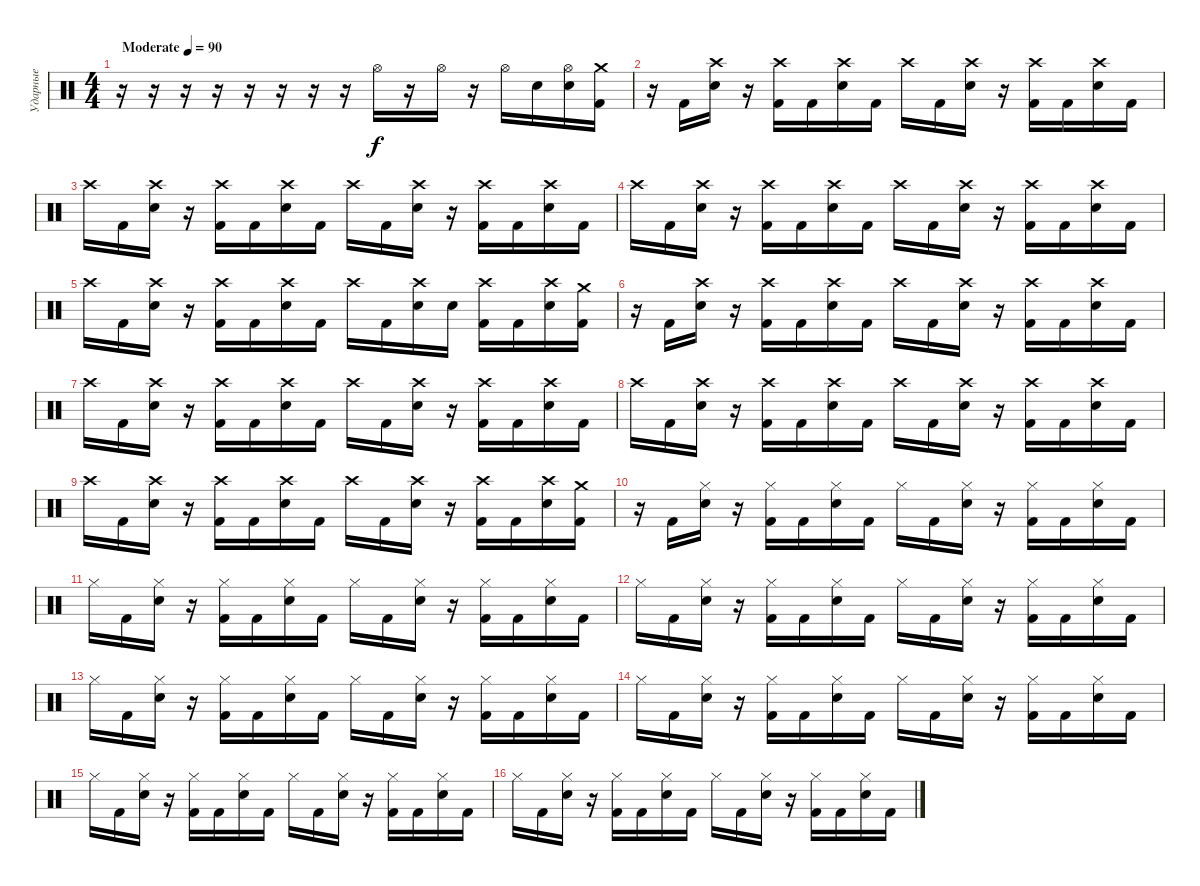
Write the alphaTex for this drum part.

\track ("Ударные" "Ударные") {instrument percussion}
\staff {score}
\articulation defaults
\ts (4 4)
\tempo (90 "Moderate")
\clef neutral
\ks c
r.16{dy f} r.16 r.16 r.16 r.16 r.16 r.16 r.16 "Hi-Hat (open)".16 r.16 "Hi-Hat (open)".16 r.16 "Hi-Hat (open)".16 "Electric Snare (hit)".16 ("Hi-Hat (open)" "Electric Snare (hit)").16 ("Crash medium (hit)" "Kick (hit) 2").16 |
r.16 "Kick (hit) 2".16 ("Crash high (hit)" "Electric Snare (hit)").16 r.16 ("Crash high (hit)" "Kick (hit) 2").16 "Kick (hit) 2".16 ("Crash high (hit)" "Electric Snare (hit)").16 "Kick (hit) 2".16 "Crash high (hit)".16 "Kick (hit) 2".16 ("Crash high (hit)" "Electric Snare (hit)").16 r.16 ("Crash high (hit)" "Kick (hit) 2").16 "Kick (hit) 2".16 ("Crash high (hit)" "Electric Snare (hit)").16 "Kick (hit) 2".16 |
"Crash high (hit)".16 "Kick (hit) 2".16 ("Crash high (hit)" "Electric Snare (hit)").16 r.16 ("Crash high (hit)" "Kick (hit) 2").16 "Kick (hit) 2".16 ("Crash high (hit)" "Electric Snare (hit)").16 "Kick (hit) 2".16 "Crash high (hit)".16 "Kick (hit) 2".16 ("Crash high (hit)" "Electric Snare (hit)").16 r.16 ("Crash high (hit)" "Kick (hit) 2").16 "Kick (hit) 2".16 ("Crash high (hit)" "Electric Snare (hit)").16 "Kick (hit) 2".16 |
"Crash high (hit)".16 "Kick (hit) 2".16 ("Crash high (hit)" "Electric Snare (hit)").16 r.16 ("Crash high (hit)" "Kick (hit) 2").16 "Kick (hit) 2".16 ("Crash high (hit)" "Electric Snare (hit)").16 "Kick (hit) 2".16 "Crash high (hit)".16 "Kick (hit) 2".16 ("Crash high (hit)" "Electric Snare (hit)").16 r.16 ("Crash high (hit)" "Kick (hit) 2").16 "Kick (hit) 2".16 ("Crash high (hit)" "Electric Snare (hit)").16 "Kick (hit) 2".16 |
"Crash high (hit)".16 "Kick (hit) 2".16 ("Crash high (hit)" "Electric Snare (hit)").16 r.16 ("Crash high (hit)" "Kick (hit) 2").16 "Kick (hit) 2".16 ("Crash high (hit)" "Electric Snare (hit)").16 "Kick (hit) 2".16 "Crash high (hit)".16 "Kick (hit) 2".16 ("Crash high (hit)" "Electric Snare (hit)").16 "Electric Snare (hit)".16 ("Crash high (hit)" "Kick (hit) 2").16 "Kick (hit) 2".16 ("Crash high (hit)" "Electric Snare (hit)").16 ("Crash medium (hit)" "Kick (hit) 2").16 |
r.16 "Kick (hit) 2".16 ("Crash high (hit)" "Electric Snare (hit)").16 r.16 ("Crash high (hit)" "Kick (hit) 2").16 "Kick (hit) 2".16 ("Crash high (hit)" "Electric Snare (hit)").16 "Kick (hit) 2".16 "Crash high (hit)".16 "Kick (hit) 2".16 ("Crash high (hit)" "Electric Snare (hit)").16 r.16 ("Crash high (hit)" "Kick (hit) 2").16 "Kick (hit) 2".16 ("Crash high (hit)" "Electric Snare (hit)").16 "Kick (hit) 2".16 |
"Crash high (hit)".16 "Kick (hit) 2".16 ("Crash high (hit)" "Electric Snare (hit)").16 r.16 ("Crash high (hit)" "Kick (hit) 2").16 "Kick (hit) 2".16 ("Crash high (hit)" "Electric Snare (hit)").16 "Kick (hit) 2".16 "Crash high (hit)".16 "Kick (hit) 2".16 ("Crash high (hit)" "Electric Snare (hit)").16 r.16 ("Crash high (hit)" "Kick (hit) 2").16 "Kick (hit) 2".16 ("Crash high (hit)" "Electric Snare (hit)").16 "Kick (hit) 2".16 |
"Crash high (hit)".16 "Kick (hit) 2".16 ("Crash high (hit)" "Electric Snare (hit)").16 r.16 ("Crash high (hit)" "Kick (hit) 2").16 "Kick (hit) 2".16 ("Crash high (hit)" "Electric Snare (hit)").16 "Kick (hit) 2".16 "Crash high (hit)".16 "Kick (hit) 2".16 ("Crash high (hit)" "Electric Snare (hit)").16 r.16 ("Crash high (hit)" "Kick (hit) 2").16 "Kick (hit) 2".16 ("Crash high (hit)" "Electric Snare (hit)").16 "Kick (hit) 2".16 |
"Crash high (hit)".16 "Kick (hit) 2".16 ("Crash high (hit)" "Electric Snare (hit)").16 r.16 ("Crash high (hit)" "Kick (hit) 2").16 "Kick (hit) 2".16 ("Crash high (hit)" "Electric Snare (hit)").16 "Kick (hit) 2".16 "Crash high (hit)".16 "Kick (hit) 2".16 ("Crash high (hit)" "Electric Snare (hit)").16 r.16 ("Crash high (hit)" "Kick (hit) 2").16 "Kick (hit) 2".16 ("Crash high (hit)" "Electric Snare (hit)").16 ("Crash medium (hit)" "Kick (hit) 2").16 |
r.16 "Kick (hit) 2".16 ("Hi-Hat (closed)" "Electric Snare (hit)").16 r.16 ("Hi-Hat (closed)" "Kick (hit) 2").16 "Kick (hit) 2".16 ("Hi-Hat (closed)" "Electric Snare (hit)").16 "Kick (hit) 2".16 "Hi-Hat (closed)".16 "Kick (hit) 2".16 ("Hi-Hat (closed)" "Electric Snare (hit)").16 r.16 ("Hi-Hat (closed)" "Kick (hit) 2").16 "Kick (hit) 2".16 ("Hi-Hat (closed)" "Electric Snare (hit)").16 "Kick (hit) 2".16 |
"Hi-Hat (closed)".16 "Kick (hit) 2".16 ("Hi-Hat (closed)" "Electric Snare (hit)").16 r.16 ("Hi-Hat (closed)" "Kick (hit) 2").16 "Kick (hit) 2".16 ("Hi-Hat (closed)" "Electric Snare (hit)").16 "Kick (hit) 2".16 "Hi-Hat (closed)".16 "Kick (hit) 2".16 ("Hi-Hat (closed)" "Electric Snare (hit)").16 r.16 ("Hi-Hat (closed)" "Kick (hit) 2").16 "Kick (hit) 2".16 ("Hi-Hat (closed)" "Electric Snare (hit)").16 "Kick (hit) 2".16 |
"Hi-Hat (closed)".16 "Kick (hit) 2".16 ("Hi-Hat (closed)" "Electric Snare (hit)").16 r.16 ("Hi-Hat (closed)" "Kick (hit) 2").16 "Kick (hit) 2".16 ("Hi-Hat (closed)" "Electric Snare (hit)").16 "Kick (hit) 2".16 "Hi-Hat (closed)".16 "Kick (hit) 2".16 ("Hi-Hat (closed)" "Electric Snare (hit)").16 r.16 ("Hi-Hat (closed)" "Kick (hit) 2").16 "Kick (hit) 2".16 ("Hi-Hat (closed)" "Electric Snare (hit)").16 "Kick (hit) 2".16 |
"Hi-Hat (closed)".16 "Kick (hit) 2".16 ("Hi-Hat (closed)" "Electric Snare (hit)").16 r.16 ("Hi-Hat (closed)" "Kick (hit) 2").16 "Kick (hit) 2".16 ("Hi-Hat (closed)" "Electric Snare (hit)").16 "Kick (hit) 2".16 "Hi-Hat (closed)".16 "Kick (hit) 2".16 ("Hi-Hat (closed)" "Electric Snare (hit)").16 r.16 ("Hi-Hat (closed)" "Kick (hit) 2").16 "Kick (hit) 2".16 ("Hi-Hat (closed)" "Electric Snare (hit)").16 "Kick (hit) 2".16 |
"Hi-Hat (closed)".16 "Kick (hit) 2".16 ("Hi-Hat (closed)" "Electric Snare (hit)").16 r.16 ("Hi-Hat (closed)" "Kick (hit) 2").16 "Kick (hit) 2".16 ("Hi-Hat (closed)" "Electric Snare (hit)").16 "Kick (hit) 2".16 "Hi-Hat (closed)".16 "Kick (hit) 2".16 ("Hi-Hat (closed)" "Electric Snare (hit)").16 r.16 ("Hi-Hat (closed)" "Kick (hit) 2").16 "Kick (hit) 2".16 ("Hi-Hat (closed)" "Electric Snare (hit)").16 "Kick (hit) 2".16 |
"Hi-Hat (closed)".16 "Kick (hit) 2".16 ("Hi-Hat (closed)" "Electric Snare (hit)").16 r.16 ("Hi-Hat (closed)" "Kick (hit) 2").16 "Kick (hit) 2".16 ("Hi-Hat (closed)" "Electric Snare (hit)").16 "Kick (hit) 2".16 "Hi-Hat (closed)".16 "Kick (hit) 2".16 ("Hi-Hat (closed)" "Electric Snare (hit)").16 r.16 ("Hi-Hat (closed)" "Kick (hit) 2").16 "Kick (hit) 2".16 ("Hi-Hat (closed)" "Electric Snare (hit)").16 "Kick (hit) 2".16 |
"Hi-Hat (closed)".16 "Kick (hit) 2".16 ("Hi-Hat (closed)" "Electric Snare (hit)").16 r.16 ("Hi-Hat (closed)" "Kick (hit) 2").16 "Kick (hit) 2".16 ("Hi-Hat (closed)" "Electric Snare (hit)").16 "Kick (hit) 2".16 "Hi-Hat (closed)".16 "Kick (hit) 2".16 ("Hi-Hat (closed)" "Electric Snare (hit)").16 r.16 ("Hi-Hat (closed)" "Kick (hit) 2").16 "Kick (hit) 2".16 ("Hi-Hat (closed)" "Electric Snare (hit)").16 "Kick (hit) 2".16
